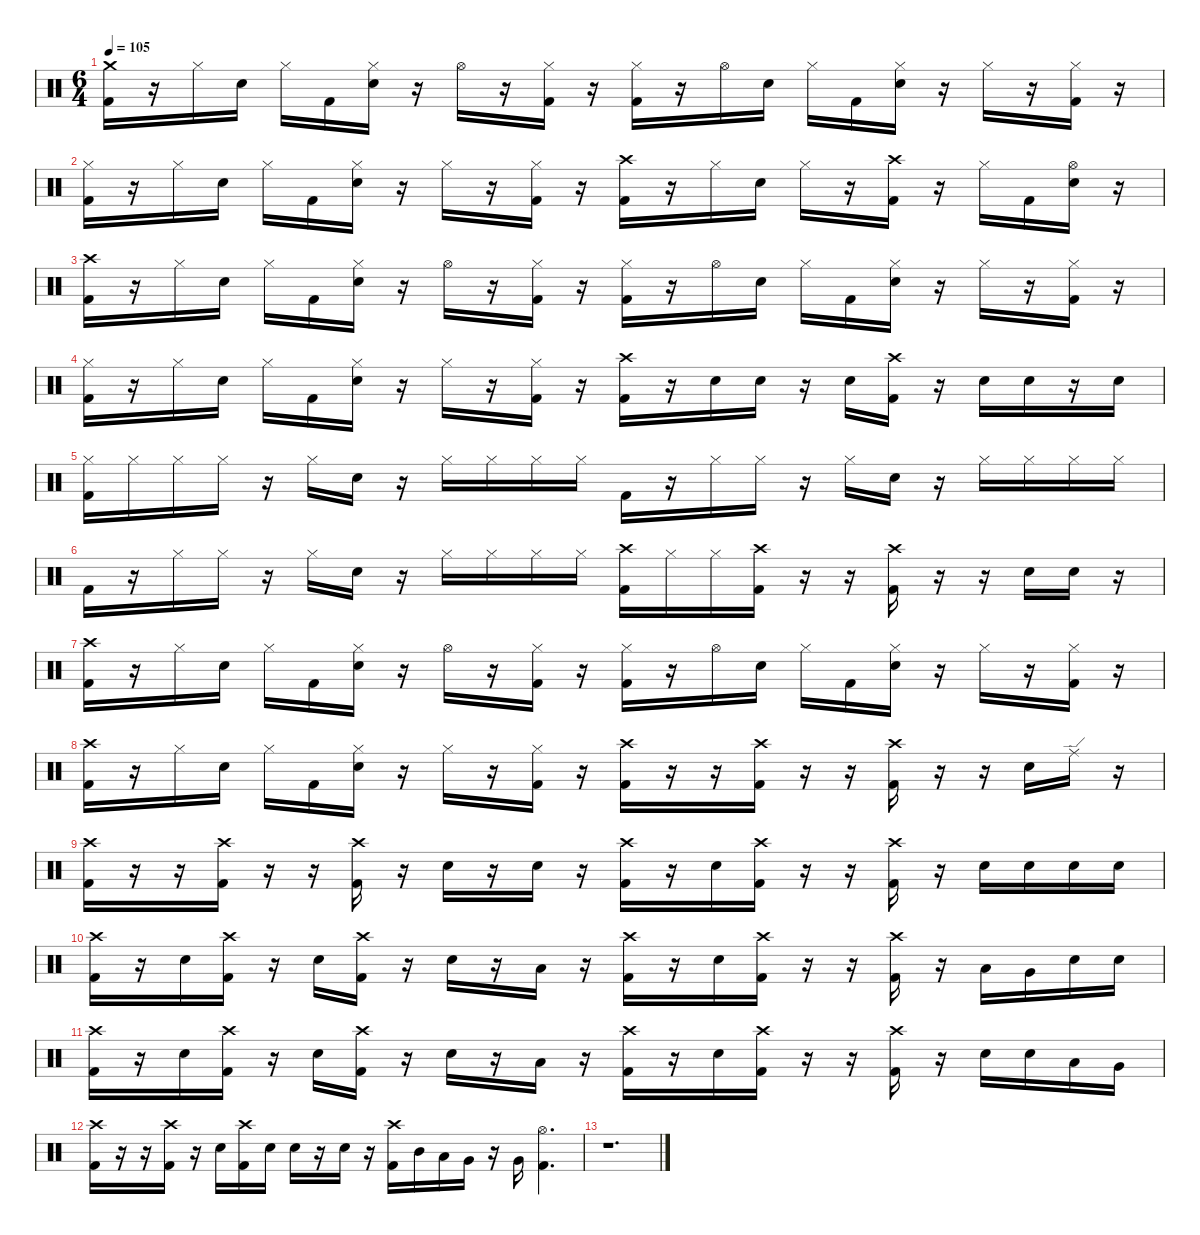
\defaultSystemsLayout 4
\hideDynamics
\bracketExtendMode nobrackets
\singleTrackTrackNamePolicy hidden
\multiTrackTrackNamePolicy hidden
\firstSystemTrackNameMode fullname
\firstSystemTrackNameOrientation horizontal
\otherSystemsTrackNameOrientation horizontal
\track ("Gene Hoglan" "drm.") {instrument percussion}
\staff {score}
\articulation defaults
\ts (6 4)
\tempo 105
\clef neutral
\ks c
("Crash medium (hit)" "Kick (hit) 2").16{dy f beam Down} r.16{beam Down} "Hi-Hat (closed)".16{beam Down} "Snare (hit) 2".16{beam Down} "Hi-Hat (closed)".16{beam Down} "Kick (hit) 2".16{beam Down} ("Hi-Hat (closed)" "Snare (hit) 2").16{beam Down} r.16{beam Down} "Hi-Hat (open)".16{beam Down} r.16{beam Down} ("Hi-Hat (closed)" "Kick (hit) 2").16{beam Down} r.16{beam Down} ("Hi-Hat (closed)" "Kick (hit) 2").16{beam Down} r.16{beam Down} "Hi-Hat (open)".16{beam Down} "Snare (hit) 2".16{beam Down} "Hi-Hat (closed)".16{beam Down} "Kick (hit) 2".16{beam Down} ("Hi-Hat (closed)" "Snare (hit) 2").16{beam Down} r.16{beam Down} "Hi-Hat (closed)".16{beam Down} r.16{beam Down} ("Hi-Hat (closed)" "Kick (hit) 2").16{beam Down} r.16{beam Down} |
("Hi-Hat (closed)" "Kick (hit) 2").16{beam Down} r.16{beam Down} "Hi-Hat (closed)".16{beam Down} "Snare (hit) 2".16{beam Down} "Hi-Hat (closed)".16{beam Down} "Kick (hit) 2".16{beam Down} ("Hi-Hat (closed)" "Snare (hit) 2").16{beam Down} r.16{beam Down} "Hi-Hat (closed)".16{beam Down} r.16{beam Down} ("Hi-Hat (closed)" "Kick (hit) 2").16{beam Down} r.16{beam Down} ("Crash high (hit)" "Kick (hit) 2").16{beam Down} r.16{beam Down} "Hi-Hat (closed)".16{beam Down} "Snare (hit) 2".16{beam Down} "Hi-Hat (closed)".16{beam Down} r.16{beam Down} ("Crash high (hit)" "Kick (hit) 2").16{beam Down} r.16{beam Down} "Hi-Hat (closed)".16{beam Down} "Kick (hit) 2".16{beam Down} ("Hi-Hat (open)" "Snare (hit) 2").16{beam Down} r.16{beam Down} |
("Crash high (hit)" "Kick (hit) 2").16{beam Down} r.16{beam Down} "Hi-Hat (closed)".16{beam Down} "Snare (hit) 2".16{beam Down} "Hi-Hat (closed)".16{beam Down} "Kick (hit) 2".16{beam Down} ("Hi-Hat (closed)" "Snare (hit) 2").16{beam Down} r.16{beam Down} "Hi-Hat (open)".16{beam Down} r.16{beam Down} ("Hi-Hat (closed)" "Kick (hit) 2").16{beam Down} r.16{beam Down} ("Hi-Hat (closed)" "Kick (hit) 2").16{beam Down} r.16{beam Down} "Hi-Hat (open)".16{beam Down} "Snare (hit) 2".16{beam Down} "Hi-Hat (closed)".16{beam Down} "Kick (hit) 2".16{beam Down} ("Hi-Hat (closed)" "Snare (hit) 2").16{beam Down} r.16{beam Down} "Hi-Hat (closed)".16{beam Down} r.16{beam Down} ("Hi-Hat (closed)" "Kick (hit) 2").16{beam Down} r.16{beam Down} |
("Hi-Hat (closed)" "Kick (hit) 2").16{beam Down} r.16{beam Down} "Hi-Hat (closed)".16{beam Down} "Snare (hit) 2".16{beam Down} "Hi-Hat (closed)".16{beam Down} "Kick (hit) 2".16{beam Down} ("Hi-Hat (closed)" "Snare (hit) 2").16{beam Down} r.16{beam Down} "Hi-Hat (closed)".16{beam Down} r.16{beam Down} ("Hi-Hat (closed)" "Kick (hit) 2").16{beam Down} r.16{beam Down} ("Crash high (hit)" "Kick (hit) 2").16{beam Down} r.16{beam Down} "Snare (hit) 2".16{beam Down} "Snare (hit) 2".16{beam Down} r.16{beam Down} "Snare (hit) 2".16{beam Down} ("Crash high (hit)" "Kick (hit) 2").16{beam Down} r.16{beam Down} "Snare (hit) 2".16{beam Down} "Snare (hit) 2".16{beam Down} r.16{beam Down} "Snare (hit) 2".16{beam Down} |
("Hi-Hat (closed)" "Kick (hit) 2").16{beam Down} "Hi-Hat (closed)".16{beam Down} "Hi-Hat (closed)".16{beam Down} "Hi-Hat (closed)".16{beam Down} r.16{beam Down} "Hi-Hat (closed)".16{beam Down} "Snare (hit) 2".16{beam Down} r.16{beam Down} "Hi-Hat (closed)".16{beam Down} "Hi-Hat (closed)".16{beam Down} "Hi-Hat (closed)".16{beam Down} "Hi-Hat (closed)".16{beam Down} "Kick (hit) 2".16{beam Down} r.16{beam Down} "Hi-Hat (closed)".16{beam Down} "Hi-Hat (closed)".16{beam Down} r.16{beam Down} "Hi-Hat (closed)".16{beam Down} "Snare (hit) 2".16{beam Down} r.16{beam Down} "Hi-Hat (closed)".16{beam Down} "Hi-Hat (closed)".16{beam Down} "Hi-Hat (closed)".16{beam Down} "Hi-Hat (closed)".16{beam Down} |
"Kick (hit) 2".16{beam Down} r.16{beam Down} "Hi-Hat (closed)".16{beam Down} "Hi-Hat (closed)".16{beam Down} r.16{beam Down} "Hi-Hat (closed)".16{beam Down} "Snare (hit) 2".16{beam Down} r.16{beam Down} "Hi-Hat (closed)".16{beam Down} "Hi-Hat (closed)".16{beam Down} "Hi-Hat (closed)".16{beam Down} "Hi-Hat (closed)".16{beam Down} ("Crash high (hit)" "Kick (hit) 2").16{beam Down} "Hi-Hat (closed)".16{beam Down} "Hi-Hat (closed)".16{beam Down} ("Crash high (hit)" "Kick (hit) 2").16{beam Down} r.16{beam Down} r.16{beam Down} ("Crash high (hit)" "Kick (hit) 2").16{beam Down} r.16{beam Down} r.16{beam Down} "Snare (hit) 2".16{beam Down} "Snare (hit) 2".16{beam Down} r.16{beam Down} |
("Crash high (hit)" "Kick (hit) 2").16{beam Down} r.16{beam Down} "Hi-Hat (closed)".16{beam Down} "Snare (hit) 2".16{beam Down} "Hi-Hat (closed)".16{beam Down} "Kick (hit) 2".16{beam Down} ("Hi-Hat (closed)" "Snare (hit) 2").16{beam Down} r.16{beam Down} "Hi-Hat (open)".16{beam Down} r.16{beam Down} ("Hi-Hat (closed)" "Kick (hit) 2").16{beam Down} r.16{beam Down} ("Hi-Hat (closed)" "Kick (hit) 2").16{beam Down} r.16{beam Down} "Hi-Hat (open)".16{beam Down} "Snare (hit) 2".16{beam Down} "Hi-Hat (closed)".16{beam Down} "Kick (hit) 2".16{beam Down} ("Hi-Hat (closed)" "Snare (hit) 2").16{beam Down} r.16{beam Down} "Hi-Hat (closed)".16{beam Down} r.16{beam Down} ("Hi-Hat (closed)" "Kick (hit) 2").16{beam Down} r.16{beam Down} |
("Crash high (hit)" "Kick (hit) 2").16{beam Down} r.16{beam Down} "Hi-Hat (closed)".16{beam Down} "Snare (hit) 2".16{beam Down} "Hi-Hat (closed)".16{beam Down} "Kick (hit) 2".16{beam Down} ("Hi-Hat (closed)" "Snare (hit) 2").16{beam Down} r.16{beam Down} "Hi-Hat (closed)".16{beam Down} r.16{beam Down} ("Hi-Hat (closed)" "Kick (hit) 2").16{beam Down} r.16{beam Down} ("Crash high (hit)" "Kick (hit) 2").16{beam Down} r.16{beam Down} r.16{beam Down} ("Crash high (hit)" "Kick (hit) 2").16{beam Down} r.16{beam Down} r.16{beam Down} ("Crash high (hit)" "Kick (hit) 2").16{beam Down} r.16{beam Down} r.16{beam Down} "Snare (hit) 2".16{beam Down} "Ride (edge)".16{beam Down} r.16{beam Down} |
("Crash high (hit)" "Kick (hit) 2").16{beam Down} r.16{beam Down} r.16{beam Down} ("Crash high (hit)" "Kick (hit) 2").16{beam Down} r.16{beam Down} r.16{beam Down} ("Crash high (hit)" "Kick (hit) 2").16{beam Down} r.16{beam Down} "Snare (hit) 2".16{beam Down} r.16{beam Down} "Snare (hit) 2".16{beam Down} r.16{beam Down} ("Crash high (hit)" "Kick (hit) 2").16{beam Down} r.16{beam Down} "Snare (hit) 2".16{beam Down} ("Crash high (hit)" "Kick (hit) 2").16{beam Down} r.16{beam Down} r.16{beam Down} ("Crash high (hit)" "Kick (hit) 2").16{beam Down} r.16{beam Down} "Snare (hit) 2".16{beam Down} "Snare (hit) 2".16{beam Down} "Snare (hit) 2".16{beam Down} "Snare (hit) 2".16{beam Down} |
("Crash high (hit)" "Kick (hit) 2").16{beam Down} r.16{beam Down} "Snare (hit) 2".16{beam Down} ("Crash high (hit)" "Kick (hit) 2").16{beam Down} r.16{beam Down} "Snare (hit) 2".16{beam Down} ("Crash high (hit)" "Kick (hit) 2").16{beam Down} r.16{beam Down} "Snare (hit) 2".16{beam Down} r.16{beam Down} "Low Tom (hit)".16{beam Down} r.16{beam Down} ("Crash high (hit)" "Kick (hit) 2").16{beam Down} r.16{beam Down} "Snare (hit) 2".16{beam Down} ("Crash high (hit)" "Kick (hit) 2").16{beam Down} r.16{beam Down} r.16{beam Down} ("Crash high (hit)" "Kick (hit) 2").16{beam Down} r.16{beam Down} "Low Tom (hit)".16{beam Down} "Very Low Tom (hit)".16{beam Down} "Snare (hit) 2".16{beam Down} "Snare (hit) 2".16{beam Down} |
("Crash high (hit)" "Kick (hit) 2").16{beam Down} r.16{beam Down} "Snare (hit) 2".16{beam Down} ("Crash high (hit)" "Kick (hit) 2").16{beam Down} r.16{beam Down} "Snare (hit) 2".16{beam Down} ("Crash high (hit)" "Kick (hit) 2").16{beam Down} r.16{beam Down} "Snare (hit) 2".16{beam Down} r.16{beam Down} "Low Tom (hit)".16{beam Down} r.16{beam Down} ("Crash high (hit)" "Kick (hit) 2").16{beam Down} r.16{beam Down} "Snare (hit) 2".16{beam Down} ("Crash high (hit)" "Kick (hit) 2").16{beam Down} r.16{beam Down} r.16{beam Down} ("Crash high (hit)" "Kick (hit) 2").16{beam Down} r.16{beam Down} "Snare (hit) 2".16{beam Down} "Snare (hit) 2".16{beam Down} "Low Tom (hit)".16{beam Down} "Very Low Tom (hit)".16{beam Down} |
("Crash high (hit)" "Kick (hit) 2").16{beam Down} r.16{beam Down} r.16{beam Down} ("Crash high (hit)" "Kick (hit) 2").16{beam Down} r.16{beam Down} "Snare (hit) 2".16{beam Down} ("Crash high (hit)" "Kick (hit) 2").16{beam Down} "Snare (hit) 2".16{beam Down} "Snare (hit) 2".16{beam Down} r.16{beam Down} "Snare (hit) 2".16{beam Down} r.16{beam Down} ("Crash high (hit)" "Kick (hit) 2").16{beam Down} "Mid Tom (hit)".16{beam Down} "Low Tom (hit)".16{beam Down} "Very Low Tom (hit)".16{beam Down} r.16{beam Down} "Very Low Tom (hit)".16{beam Down} ("Hi-Hat (open)" "Kick (hit) 2").4{d beam Down} |
r.1{d beam Down}
